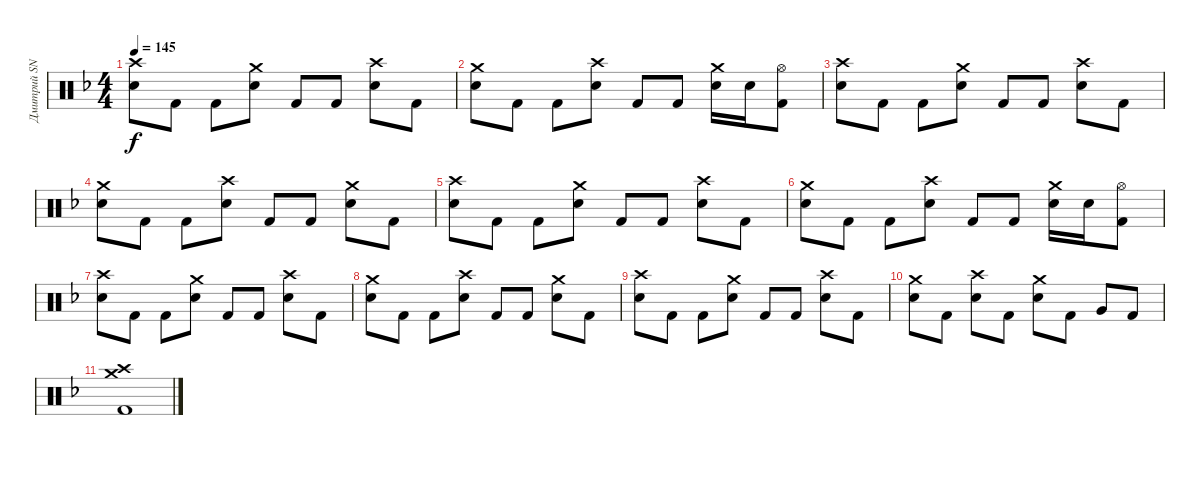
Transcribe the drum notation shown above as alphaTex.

\track ("Дмитрий SNAKE Хакимов" "Дмитрий SN") {instrument percussion}
\staff {score}
\articulation defaults
\ts (4 4)
\tempo 145
\clef neutral
\ks f
("Crash high (hit)" "Snare (hit) 2").8{dy f} "Kick (hit) 2".8 "Kick (hit) 2".8 ("Crash medium (hit)" "Snare (hit) 2").8 "Kick (hit) 2".8 "Kick (hit) 2".8 ("Crash high (hit)" "Snare (hit) 2").8 "Kick (hit) 2".8 |
("Crash medium (hit)" "Snare (hit) 2").8 "Kick (hit) 2".8 "Kick (hit) 2".8 ("Crash high (hit)" "Snare (hit) 2").8 "Kick (hit) 2".8 "Kick (hit) 2".8 ("Crash medium (hit)" "Snare (hit) 2").16 "Snare (hit) 2".16 ("Hi-Hat (open)" "Kick (hit) 2").8 |
("Crash high (hit)" "Snare (hit) 2").8 "Kick (hit) 2".8 "Kick (hit) 2".8 ("Crash medium (hit)" "Snare (hit) 2").8 "Kick (hit) 2".8 "Kick (hit) 2".8 ("Crash high (hit)" "Snare (hit) 2").8 "Kick (hit) 2".8 |
("Crash medium (hit)" "Snare (hit) 2").8 "Kick (hit) 2".8 "Kick (hit) 2".8 ("Crash high (hit)" "Snare (hit) 2").8 "Kick (hit) 2".8 "Kick (hit) 2".8 ("Crash medium (hit)" "Snare (hit) 2").8 "Kick (hit) 2".8 |
("Crash high (hit)" "Snare (hit) 2").8 "Kick (hit) 2".8 "Kick (hit) 2".8 ("Crash medium (hit)" "Snare (hit) 2").8 "Kick (hit) 2".8 "Kick (hit) 2".8 ("Crash high (hit)" "Snare (hit) 2").8 "Kick (hit) 2".8 |
("Crash medium (hit)" "Snare (hit) 2").8 "Kick (hit) 2".8 "Kick (hit) 2".8 ("Crash high (hit)" "Snare (hit) 2").8 "Kick (hit) 2".8 "Kick (hit) 2".8 ("Crash medium (hit)" "Snare (hit) 2").16 "Snare (hit) 2".16 ("Hi-Hat (open)" "Kick (hit) 2").8 |
("Crash high (hit)" "Snare (hit) 2").8 "Kick (hit) 2".8 "Kick (hit) 2".8 ("Crash medium (hit)" "Snare (hit) 2").8 "Kick (hit) 2".8 "Kick (hit) 2".8 ("Crash high (hit)" "Snare (hit) 2").8 "Kick (hit) 2".8 |
("Crash medium (hit)" "Snare (hit) 2").8 "Kick (hit) 2".8 "Kick (hit) 2".8 ("Crash high (hit)" "Snare (hit) 2").8 "Kick (hit) 2".8 "Kick (hit) 2".8 ("Crash medium (hit)" "Snare (hit) 2").8 "Kick (hit) 2".8 |
("Crash high (hit)" "Snare (hit) 2").8 "Kick (hit) 2".8 "Kick (hit) 2".8 ("Crash medium (hit)" "Snare (hit) 2").8 "Kick (hit) 2".8 "Kick (hit) 2".8 ("Crash high (hit)" "Snare (hit) 2").8 "Kick (hit) 2".8 |
("Crash medium (hit)" "Snare (hit) 2").8 "Kick (hit) 2".8 ("Crash high (hit)" "Snare (hit) 2").8 "Kick (hit) 2".8 ("Crash medium (hit)" "Snare (hit) 2").8 "Kick (hit) 2".8 "Very Low Tom (hit)".8 "Kick (hit) 2".8 |
("Crash medium (hit)" "Crash high (hit)" "Kick (hit) 2").1
